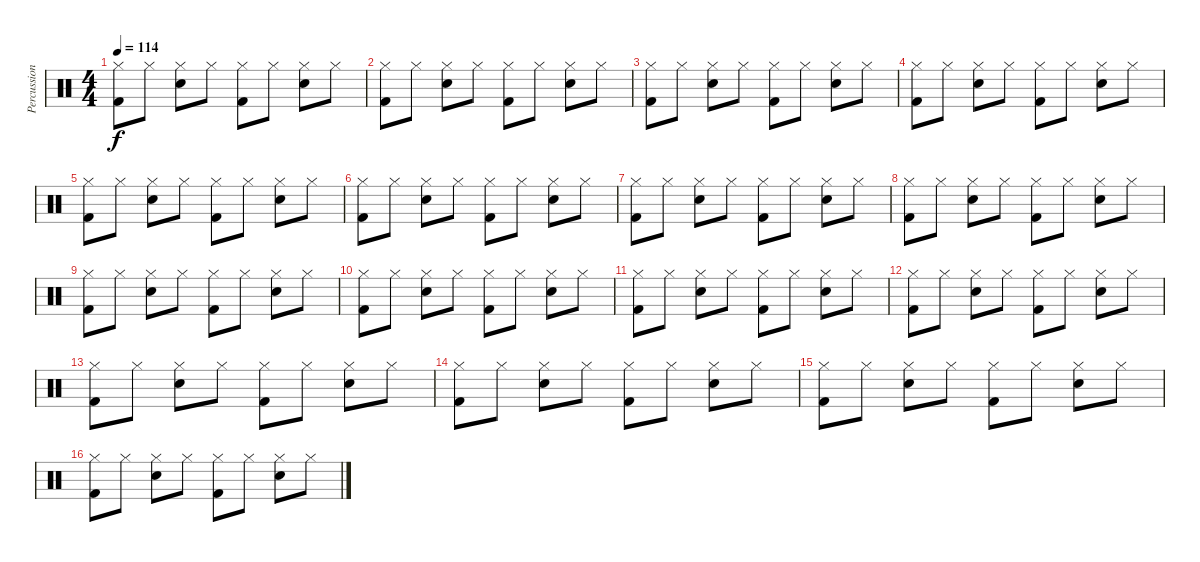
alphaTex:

\track ("Percussion" "Percussion") {instrument percussion}
\staff {score}
\articulation defaults
\ts (4 4)
\tempo 114
\clef neutral
\ks c
("Hi-Hat (closed)" "Kick (hit) 2").8{dy f} "Hi-Hat (closed)".8 ("Hi-Hat (closed)" "Snare (hit) 2").8 "Hi-Hat (closed)".8 ("Hi-Hat (closed)" "Kick (hit) 2").8 "Hi-Hat (closed)".8 ("Hi-Hat (closed)" "Snare (hit) 2").8 "Hi-Hat (closed)".8 |
("Hi-Hat (closed)" "Kick (hit) 2").8 "Hi-Hat (closed)".8 ("Hi-Hat (closed)" "Snare (hit) 2").8 "Hi-Hat (closed)".8 ("Hi-Hat (closed)" "Kick (hit) 2").8 "Hi-Hat (closed)".8 ("Hi-Hat (closed)" "Snare (hit) 2").8 "Hi-Hat (closed)".8 |
("Hi-Hat (closed)" "Kick (hit) 2").8 "Hi-Hat (closed)".8 ("Hi-Hat (closed)" "Snare (hit) 2").8 "Hi-Hat (closed)".8 ("Hi-Hat (closed)" "Kick (hit) 2").8 "Hi-Hat (closed)".8 ("Hi-Hat (closed)" "Snare (hit) 2").8 "Hi-Hat (closed)".8 |
("Hi-Hat (closed)" "Kick (hit) 2").8 "Hi-Hat (closed)".8 ("Hi-Hat (closed)" "Snare (hit) 2").8 "Hi-Hat (closed)".8 ("Hi-Hat (closed)" "Kick (hit) 2").8 "Hi-Hat (closed)".8 ("Hi-Hat (closed)" "Snare (hit) 2").8 "Hi-Hat (closed)".8 |
("Hi-Hat (closed)" "Kick (hit) 2").8 "Hi-Hat (closed)".8 ("Hi-Hat (closed)" "Snare (hit) 2").8 "Hi-Hat (closed)".8 ("Hi-Hat (closed)" "Kick (hit) 2").8 "Hi-Hat (closed)".8 ("Hi-Hat (closed)" "Snare (hit) 2").8 "Hi-Hat (closed)".8 |
("Hi-Hat (closed)" "Kick (hit) 2").8 "Hi-Hat (closed)".8 ("Hi-Hat (closed)" "Snare (hit) 2").8 "Hi-Hat (closed)".8 ("Hi-Hat (closed)" "Kick (hit) 2").8 "Hi-Hat (closed)".8 ("Hi-Hat (closed)" "Snare (hit) 2").8 "Hi-Hat (closed)".8 |
("Hi-Hat (closed)" "Kick (hit) 2").8 "Hi-Hat (closed)".8 ("Hi-Hat (closed)" "Snare (hit) 2").8 "Hi-Hat (closed)".8 ("Hi-Hat (closed)" "Kick (hit) 2").8 "Hi-Hat (closed)".8 ("Hi-Hat (closed)" "Snare (hit) 2").8 "Hi-Hat (closed)".8 |
("Hi-Hat (closed)" "Kick (hit) 2").8 "Hi-Hat (closed)".8 ("Hi-Hat (closed)" "Snare (hit) 2").8 "Hi-Hat (closed)".8 ("Hi-Hat (closed)" "Kick (hit) 2").8 "Hi-Hat (closed)".8 ("Hi-Hat (closed)" "Snare (hit) 2").8 "Hi-Hat (closed)".8 |
("Hi-Hat (closed)" "Kick (hit) 2").8 "Hi-Hat (closed)".8 ("Hi-Hat (closed)" "Snare (hit) 2").8 "Hi-Hat (closed)".8 ("Hi-Hat (closed)" "Kick (hit) 2").8 "Hi-Hat (closed)".8 ("Hi-Hat (closed)" "Snare (hit) 2").8 "Hi-Hat (closed)".8 |
("Hi-Hat (closed)" "Kick (hit) 2").8 "Hi-Hat (closed)".8 ("Hi-Hat (closed)" "Snare (hit) 2").8 "Hi-Hat (closed)".8 ("Hi-Hat (closed)" "Kick (hit) 2").8 "Hi-Hat (closed)".8 ("Hi-Hat (closed)" "Snare (hit) 2").8 "Hi-Hat (closed)".8 |
("Hi-Hat (closed)" "Kick (hit) 2").8 "Hi-Hat (closed)".8 ("Hi-Hat (closed)" "Snare (hit) 2").8 "Hi-Hat (closed)".8 ("Hi-Hat (closed)" "Kick (hit) 2").8 "Hi-Hat (closed)".8 ("Hi-Hat (closed)" "Snare (hit) 2").8 "Hi-Hat (closed)".8 |
("Hi-Hat (closed)" "Kick (hit) 2").8 "Hi-Hat (closed)".8 ("Hi-Hat (closed)" "Snare (hit) 2").8 "Hi-Hat (closed)".8 ("Hi-Hat (closed)" "Kick (hit) 2").8 "Hi-Hat (closed)".8 ("Hi-Hat (closed)" "Snare (hit) 2").8 "Hi-Hat (closed)".8 |
("Hi-Hat (closed)" "Kick (hit) 2").8 "Hi-Hat (closed)".8 ("Hi-Hat (closed)" "Snare (hit) 2").8 "Hi-Hat (closed)".8 ("Hi-Hat (closed)" "Kick (hit) 2").8 "Hi-Hat (closed)".8 ("Hi-Hat (closed)" "Snare (hit) 2").8 "Hi-Hat (closed)".8 |
("Hi-Hat (closed)" "Kick (hit) 2").8 "Hi-Hat (closed)".8 ("Hi-Hat (closed)" "Snare (hit) 2").8 "Hi-Hat (closed)".8 ("Hi-Hat (closed)" "Kick (hit) 2").8 "Hi-Hat (closed)".8 ("Hi-Hat (closed)" "Snare (hit) 2").8 "Hi-Hat (closed)".8 |
("Hi-Hat (closed)" "Kick (hit) 2").8 "Hi-Hat (closed)".8 ("Hi-Hat (closed)" "Snare (hit) 2").8 "Hi-Hat (closed)".8 ("Hi-Hat (closed)" "Kick (hit) 2").8 "Hi-Hat (closed)".8 ("Hi-Hat (closed)" "Snare (hit) 2").8 "Hi-Hat (closed)".8 |
("Hi-Hat (closed)" "Kick (hit) 2").8 "Hi-Hat (closed)".8 ("Hi-Hat (closed)" "Snare (hit) 2").8 "Hi-Hat (closed)".8 ("Hi-Hat (closed)" "Kick (hit) 2").8 "Hi-Hat (closed)".8 ("Hi-Hat (closed)" "Snare (hit) 2").8 "Hi-Hat (closed)".8
